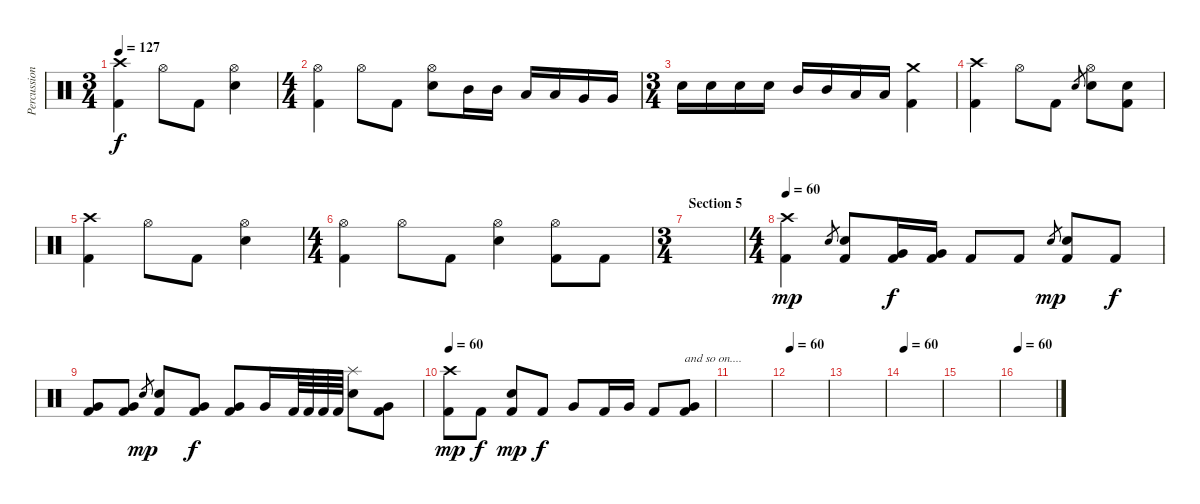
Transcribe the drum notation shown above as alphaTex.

\track ("Percussion" "Percussion") {instrument percussion}
\staff {score}
\articulation defaults
\ts (3 4)
\tempo 127
\clef neutral
\ks c
("Crash high (hit)" "Kick (hit) 2").4{dy f} "Hi-Hat (open)".8 "Kick (hit) 2".8 ("Hi-Hat (open)" "Electric Snare (hit)").4 |
\ts (4 4)
("Hi-Hat (open)" "Kick (hit) 2").4 "Hi-Hat (open)".8 "Kick (hit) 2".8 ("Hi-Hat (open)" "Electric Snare (hit)").8 "Mid Tom (hit)".16 "Mid Tom (hit)".16 "Low Tom (hit)".16 "Low Tom (hit)".16 "Very Low Tom (hit)".16 "Very Low Tom (hit)".16 |
\ts (3 4)
"Electric Snare (hit)".16 "Electric Snare (hit)".16 "Electric Snare (hit)".16 "Electric Snare (hit)".16 "Mid Tom (hit)".16 "Mid Tom (hit)".16 "Low Tom (hit)".16 "Low Tom (hit)".16 ("Crash medium (hit)" "Kick (hit) 2").4 |
("Crash high (hit)" "Kick (hit) 2").4 "Hi-Hat (open)".8 "Kick (hit) 2".8 "Electric Snare (hit)".8{gr} ("Hi-Hat (open)" "Electric Snare (hit)").8 ("Electric Snare (hit)" "Kick (hit) 2").8 |
("Crash high (hit)" "Kick (hit) 2").4 "Hi-Hat (open)".8 "Kick (hit) 2".8 ("Hi-Hat (open)" "Electric Snare (hit)").4 |
\ts (4 4)
("Hi-Hat (open)" "Kick (hit) 2").4 "Hi-Hat (open)".8 "Kick (hit) 2".8 ("Hi-Hat (open)" "Electric Snare (hit)").4 ("Hi-Hat (open)" "Kick (hit) 2").8 "Kick (hit) 2".8 |
\ts (3 4)
\section ("" "Section 5")
|
\ts (4 4)
\tempo 60
("Crash high (hit)" "Kick (hit) 2").4{dy mp} "Electric Snare (hit)".8{gr} ("Electric Snare (hit)" "Kick (hit) 2").8 ("Very Low Tom (hit)" "Kick (hit) 2").16{dy f} ("Very Low Tom (hit)" "Kick (hit) 2").16 "Kick (hit) 2".8 "Kick (hit) 2".8 "Electric Snare (hit)".8{gr dy mp} ("Electric Snare (hit)" "Kick (hit) 2").8 "Kick (hit) 2".8{dy f} |
("Very Low Tom (hit)" "Kick (hit) 2").8 ("Very Low Tom (hit)" "Kick (hit) 2").8 "Electric Snare (hit)".8{gr dy mp} ("Electric Snare (hit)" "Kick (hit) 2").8 ("Very Low Tom (hit)" "Kick (hit) 2").8{dy f} ("Very Low Tom (hit)" "Kick (hit) 2").8 "Very Low Tom (hit)".16 "Kick (hit) 2".64 "Kick (hit) 2".64 "Kick (hit) 2".64 "Kick (hit) 2".64 ("Splash (hit)" "Electric Snare (hit)").8 ("Very Low Tom (hit)" "Kick (hit) 2").8 |
\tempo 60
("Crash high (hit)" "Kick (hit) 2").8{dy mp} "Kick (hit) 2".8{dy f} ("Electric Snare (hit)" "Kick (hit) 2").8{dy mp} "Kick (hit) 2".8{dy f} "Very Low Tom (hit)".8 "Kick (hit) 2".16 "Very Low Tom (hit)".16 "Kick (hit) 2".8 ("Very Low Tom (hit)" "Kick (hit) 2").8{txt "and so on...."} |
|
\tempo 60
|
|
\tempo 60
|
|
\tempo 60
